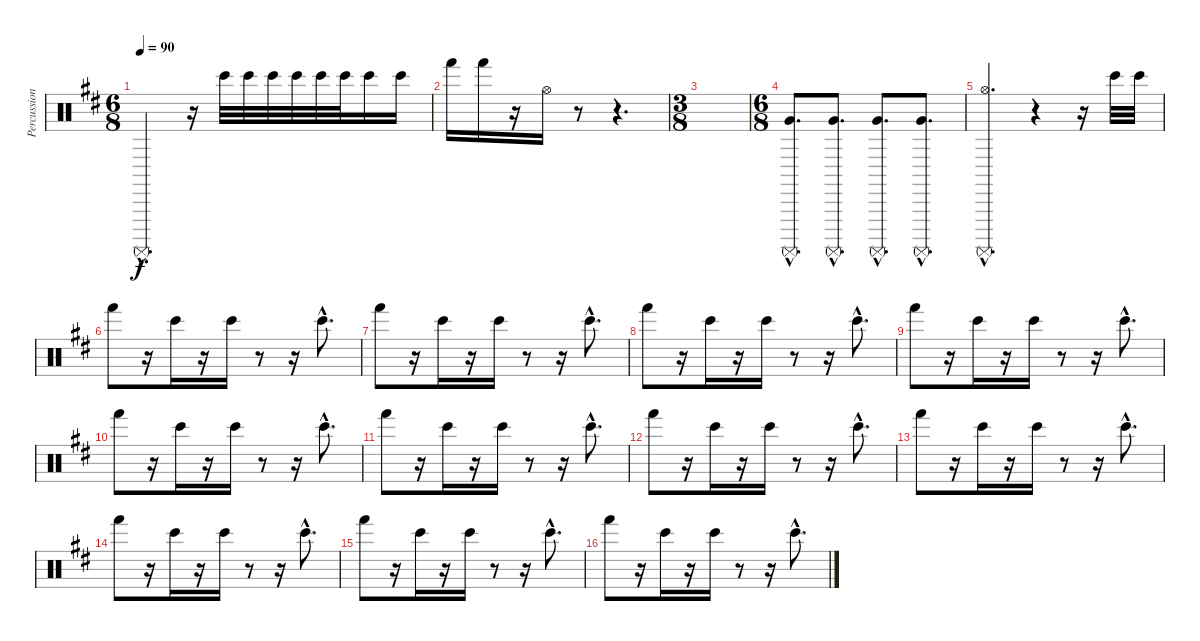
\track ("Percussioni" "Percussion") {instrument percussion}
\staff {score}
\articulation defaults
\ts (6 8)
\tempo 90
\clef neutral
\ks bminor "Surdo (mute)"{hac}.4{d dy f}
r.16 "Bongo High (hit)".32 "Bongo High (hit)".32 "Bongo High (hit)".32 "Bongo High (hit)".32 "Bongo High (hit)".32 "Bongo High (hit)".32 "Bongo High (hit)".16 "Bongo High (hit)".16 |
"Hand (hit)".16 "Hand (hit)".16 r.16 "Hi-Hat (open)".16 r.8 r.4{d} |
\ts (3 8)
|
\ts (6 8)
("Very Low Tom (hit)"{hac} "Surdo (mute)"{hac}).8{d} ("Very Low Tom (hit)"{hac} "Surdo (mute)"{hac}).8{d} ("Very Low Tom (hit)"{hac} "Surdo (mute)"{hac}).8{d} ("Very Low Tom (hit)"{hac} "Surdo (mute)"{hac}).8{d} |
("Hi-Hat (open)"{hac} "Surdo (mute)"{hac}).4{d} r.4 r.16 "Bongo High (hit)".32 "Bongo High (hit)".32 |
"Hand (hit)".8 r.16 "Bongo High (hit)".16 r.16 "Bongo High (hit)".16 r.8 r.16 "Bongo High (hit)"{hac}.8{d} |
"Hand (hit)".8 r.16 "Bongo High (hit)".16 r.16 "Bongo High (hit)".16 r.8 r.16 "Bongo High (hit)"{hac}.8{d} |
"Hand (hit)".8 r.16 "Bongo High (hit)".16 r.16 "Bongo High (hit)".16 r.8 r.16 "Bongo High (hit)"{hac}.8{d} |
"Hand (hit)".8 r.16 "Bongo High (hit)".16 r.16 "Bongo High (hit)".16 r.8 r.16 "Bongo High (hit)"{hac}.8{d} |
"Hand (hit)".8 r.16 "Bongo High (hit)".16 r.16 "Bongo High (hit)".16 r.8 r.16 "Bongo High (hit)"{hac}.8{d} |
"Hand (hit)".8 r.16 "Bongo High (hit)".16 r.16 "Bongo High (hit)".16 r.8 r.16 "Bongo High (hit)"{hac}.8{d} |
"Hand (hit)".8 r.16 "Bongo High (hit)".16 r.16 "Bongo High (hit)".16 r.8 r.16 "Bongo High (hit)"{hac}.8{d} |
"Hand (hit)".8 r.16 "Bongo High (hit)".16 r.16 "Bongo High (hit)".16 r.8 r.16 "Bongo High (hit)"{hac}.8{d} |
"Hand (hit)".8 r.16 "Bongo High (hit)".16 r.16 "Bongo High (hit)".16 r.8 r.16 "Bongo High (hit)"{hac}.8{d} |
"Hand (hit)".8 r.16 "Bongo High (hit)".16 r.16 "Bongo High (hit)".16 r.8 r.16 "Bongo High (hit)"{hac}.8{d} |
"Hand (hit)".8 r.16 "Bongo High (hit)".16 r.16 "Bongo High (hit)".16 r.8 r.16 "Bongo High (hit)"{hac}.8{d}
